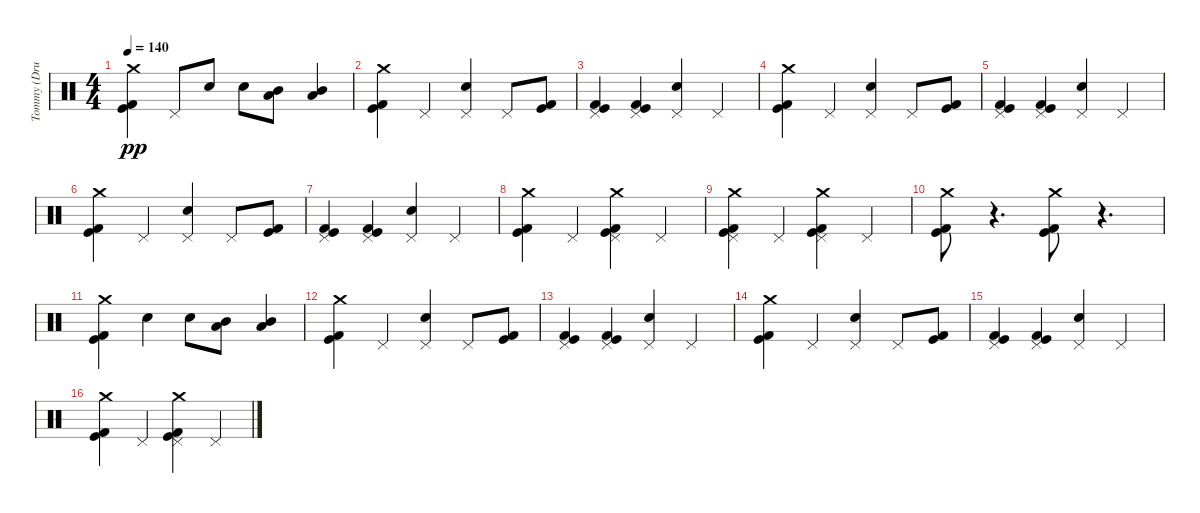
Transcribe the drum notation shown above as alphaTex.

\track ("Tommy (Drums)" "Tommy (Dru") {instrument percussion}
\staff {score}
\articulation defaults
\ts (4 4)
\tempo 140
\clef neutral
\ks c
("Crash medium (hit)" "Kick (hit)" "Kick (hit) 2").4{dy pp} "Pedal Hi-Hat (hit)".8 "Snare (hit) 2".8 "Snare (hit) 2".8 ("Mid Tom (hit)" "Low Tom (hit)").8 ("Low Tom (hit)" "Mid Tom (hit)").4 |
("Kick (hit)" "Crash medium (hit)" "Kick (hit) 2").4 "Pedal Hi-Hat (hit)".4 ("Pedal Hi-Hat (hit)" "Snare (hit) 2").4 "Pedal Hi-Hat (hit)".8 ("Kick (hit)" "Kick (hit) 2").8 |
("Pedal Hi-Hat (hit)" "Kick (hit)" "Kick (hit) 2").4 ("Pedal Hi-Hat (hit)" "Kick (hit)" "Kick (hit) 2").4 ("Snare (hit) 2" "Pedal Hi-Hat (hit)").4 "Pedal Hi-Hat (hit)".4 |
("Kick (hit)" "Crash medium (hit)" "Kick (hit) 2").4 "Pedal Hi-Hat (hit)".4 ("Pedal Hi-Hat (hit)" "Snare (hit) 2").4 "Pedal Hi-Hat (hit)".8 ("Kick (hit)" "Kick (hit) 2").8 |
("Pedal Hi-Hat (hit)" "Kick (hit)" "Kick (hit) 2").4 ("Pedal Hi-Hat (hit)" "Kick (hit)" "Kick (hit) 2").4 ("Snare (hit) 2" "Pedal Hi-Hat (hit)").4 "Pedal Hi-Hat (hit)".4 |
("Kick (hit)" "Crash medium (hit)" "Kick (hit) 2").4 "Pedal Hi-Hat (hit)".4 ("Pedal Hi-Hat (hit)" "Snare (hit) 2").4 "Pedal Hi-Hat (hit)".8 ("Kick (hit)" "Kick (hit) 2").8 |
("Pedal Hi-Hat (hit)" "Kick (hit)" "Kick (hit) 2").4 ("Pedal Hi-Hat (hit)" "Kick (hit)" "Kick (hit) 2").4 ("Snare (hit) 2" "Pedal Hi-Hat (hit)").4 "Pedal Hi-Hat (hit)".4 |
("Kick (hit)" "Crash medium (hit)" "Kick (hit) 2").4 "Pedal Hi-Hat (hit)".4 ("Crash medium (hit)" "Kick (hit) 2" "Kick (hit)" "Pedal Hi-Hat (hit)").4 "Pedal Hi-Hat (hit)".4 |
("Crash medium (hit)" "Pedal Hi-Hat (hit)" "Kick (hit)" "Kick (hit) 2").4 "Pedal Hi-Hat (hit)".4 ("Crash medium (hit)" "Kick (hit) 2" "Kick (hit)" "Pedal Hi-Hat (hit)").4 "Pedal Hi-Hat (hit)".4 |
("Crash medium (hit)" "Kick (hit) 2" "Kick (hit)").8 r.4{d} ("Crash medium (hit)" "Kick (hit)" "Kick (hit) 2").8 r.4{d} |
("Crash medium (hit)" "Kick (hit)" "Kick (hit) 2").4 "Snare (hit) 2".4 "Snare (hit) 2".8 ("Low Tom (hit)" "Mid Tom (hit)").8 ("Low Tom (hit)" "Mid Tom (hit)").4 |
("Kick (hit)" "Crash medium (hit)" "Kick (hit) 2").4 "Pedal Hi-Hat (hit)".4 ("Pedal Hi-Hat (hit)" "Snare (hit) 2").4 "Pedal Hi-Hat (hit)".8 ("Kick (hit)" "Kick (hit) 2").8 |
("Pedal Hi-Hat (hit)" "Kick (hit)" "Kick (hit) 2").4 ("Pedal Hi-Hat (hit)" "Kick (hit)" "Kick (hit) 2").4 ("Snare (hit) 2" "Pedal Hi-Hat (hit)").4 "Pedal Hi-Hat (hit)".4 |
("Kick (hit)" "Crash medium (hit)" "Kick (hit) 2").4 "Pedal Hi-Hat (hit)".4 ("Pedal Hi-Hat (hit)" "Snare (hit) 2").4 "Pedal Hi-Hat (hit)".8 ("Kick (hit)" "Kick (hit) 2").8 |
("Pedal Hi-Hat (hit)" "Kick (hit)" "Kick (hit) 2").4 ("Pedal Hi-Hat (hit)" "Kick (hit)" "Kick (hit) 2").4 ("Snare (hit) 2" "Pedal Hi-Hat (hit)").4 "Pedal Hi-Hat (hit)".4 |
("Kick (hit)" "Crash medium (hit)" "Kick (hit) 2").4 "Pedal Hi-Hat (hit)".4 ("Crash medium (hit)" "Kick (hit) 2" "Kick (hit)" "Pedal Hi-Hat (hit)").4 "Pedal Hi-Hat (hit)".4
